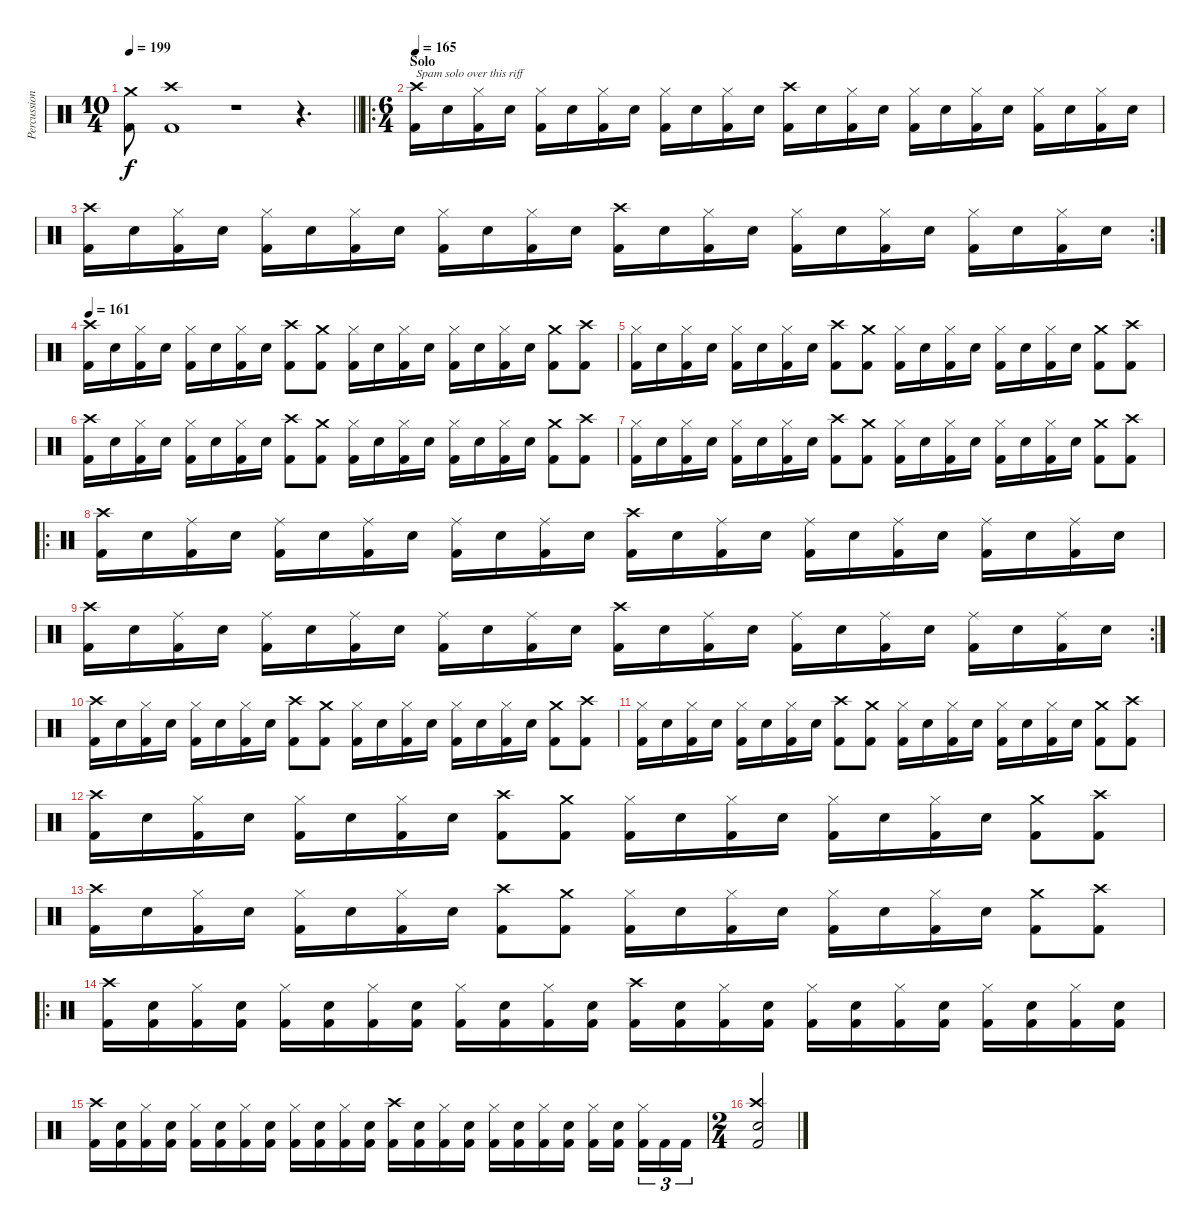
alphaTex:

\track ("Percussion" "Percussion") {instrument percussion}
\staff {score}
\articulation defaults
\ts (10 4)
\tempo 199
\clef neutral
\barLineRight lightlight
\ks c
("Crash medium (hit)" "Kick (hit) 2").8{dy f} ("Crash high (hit)" "Kick (hit) 2").1 r.1 r.4{d} |
\ro
\ts (6 4)
\section ("" "Solo")
\tempo 165
("Crash high (hit)" "Kick (hit) 2").16{txt "Spam solo over this riff"} "Snare (hit) 2".16 ("Hi-Hat (closed)" "Kick (hit) 2").16 "Snare (hit) 2".16 ("Hi-Hat (closed)" "Kick (hit) 2").16 "Snare (hit) 2".16 ("Hi-Hat (closed)" "Kick (hit) 2").16 "Snare (hit) 2".16 ("Hi-Hat (closed)" "Kick (hit) 2").16 "Snare (hit) 2".16 ("Hi-Hat (closed)" "Kick (hit) 2").16 "Snare (hit) 2".16 ("Crash high (hit)" "Kick (hit) 2").16 "Snare (hit) 2".16 ("Hi-Hat (closed)" "Kick (hit) 2").16 "Snare (hit) 2".16 ("Hi-Hat (closed)" "Kick (hit) 2").16 "Snare (hit) 2".16 ("Hi-Hat (closed)" "Kick (hit) 2").16 "Snare (hit) 2".16 ("Hi-Hat (closed)" "Kick (hit) 2").16 "Snare (hit) 2".16 ("Hi-Hat (closed)" "Kick (hit) 2").16 "Snare (hit) 2".16 |
\rc 2
("Crash high (hit)" "Kick (hit) 2").16 "Snare (hit) 2".16 ("Hi-Hat (closed)" "Kick (hit) 2").16 "Snare (hit) 2".16 ("Hi-Hat (closed)" "Kick (hit) 2").16 "Snare (hit) 2".16 ("Hi-Hat (closed)" "Kick (hit) 2").16 "Snare (hit) 2".16 ("Hi-Hat (closed)" "Kick (hit) 2").16 "Snare (hit) 2".16 ("Hi-Hat (closed)" "Kick (hit) 2").16 "Snare (hit) 2".16 ("Crash high (hit)" "Kick (hit) 2").16 "Snare (hit) 2".16 ("Hi-Hat (closed)" "Kick (hit) 2").16 "Snare (hit) 2".16 ("Hi-Hat (closed)" "Kick (hit) 2").16 "Snare (hit) 2".16 ("Hi-Hat (closed)" "Kick (hit) 2").16 "Snare (hit) 2".16 ("Hi-Hat (closed)" "Kick (hit) 2").16 "Snare (hit) 2".16 ("Hi-Hat (closed)" "Kick (hit) 2").16 "Snare (hit) 2".16 |
\tempo 161
("Crash high (hit)" "Kick (hit) 2").16 "Snare (hit) 2".16 ("Hi-Hat (closed)" "Kick (hit) 2").16 "Snare (hit) 2".16 ("Hi-Hat (closed)" "Kick (hit) 2").16 "Snare (hit) 2".16 ("Hi-Hat (closed)" "Kick (hit) 2").16 "Snare (hit) 2".16 ("Crash high (hit)" "Kick (hit) 2").8 ("Crash medium (hit)" "Kick (hit) 2").8 ("Hi-Hat (closed)" "Kick (hit) 2").16 "Snare (hit) 2".16 ("Hi-Hat (closed)" "Kick (hit) 2").16 "Snare (hit) 2".16 ("Hi-Hat (closed)" "Kick (hit) 2").16 "Snare (hit) 2".16 ("Hi-Hat (closed)" "Kick (hit) 2").16 "Snare (hit) 2".16 ("Crash medium (hit)" "Kick (hit) 2").8 ("Crash high (hit)" "Kick (hit) 2").8 |
("Hi-Hat (closed)" "Kick (hit) 2").16 "Snare (hit) 2".16 ("Hi-Hat (closed)" "Kick (hit) 2").16 "Snare (hit) 2".16 ("Hi-Hat (closed)" "Kick (hit) 2").16 "Snare (hit) 2".16 ("Hi-Hat (closed)" "Kick (hit) 2").16 "Snare (hit) 2".16 ("Crash high (hit)" "Kick (hit) 2").8 ("Crash medium (hit)" "Kick (hit) 2").8 ("Hi-Hat (closed)" "Kick (hit) 2").16 "Snare (hit) 2".16 ("Hi-Hat (closed)" "Kick (hit) 2").16 "Snare (hit) 2".16 ("Hi-Hat (closed)" "Kick (hit) 2").16 "Snare (hit) 2".16 ("Hi-Hat (closed)" "Kick (hit) 2").16 "Snare (hit) 2".16 ("Crash medium (hit)" "Kick (hit) 2").8 ("Crash high (hit)" "Kick (hit) 2").8 |
("Crash high (hit)" "Kick (hit) 2").16 "Snare (hit) 2".16 ("Hi-Hat (closed)" "Kick (hit) 2").16 "Snare (hit) 2".16 ("Hi-Hat (closed)" "Kick (hit) 2").16 "Snare (hit) 2".16 ("Hi-Hat (closed)" "Kick (hit) 2").16 "Snare (hit) 2".16 ("Crash high (hit)" "Kick (hit) 2").8 ("Crash medium (hit)" "Kick (hit) 2").8 ("Hi-Hat (closed)" "Kick (hit) 2").16 "Snare (hit) 2".16 ("Hi-Hat (closed)" "Kick (hit) 2").16 "Snare (hit) 2".16 ("Hi-Hat (closed)" "Kick (hit) 2").16 "Snare (hit) 2".16 ("Hi-Hat (closed)" "Kick (hit) 2").16 "Snare (hit) 2".16 ("Crash medium (hit)" "Kick (hit) 2").8 ("Crash high (hit)" "Kick (hit) 2").8 |
("Hi-Hat (closed)" "Kick (hit) 2").16 "Snare (hit) 2".16 ("Hi-Hat (closed)" "Kick (hit) 2").16 "Snare (hit) 2".16 ("Hi-Hat (closed)" "Kick (hit) 2").16 "Snare (hit) 2".16 ("Hi-Hat (closed)" "Kick (hit) 2").16 "Snare (hit) 2".16 ("Crash high (hit)" "Kick (hit) 2").8 ("Crash medium (hit)" "Kick (hit) 2").8 ("Hi-Hat (closed)" "Kick (hit) 2").16 "Snare (hit) 2".16 ("Hi-Hat (closed)" "Kick (hit) 2").16 "Snare (hit) 2".16 ("Hi-Hat (closed)" "Kick (hit) 2").16 "Snare (hit) 2".16 ("Hi-Hat (closed)" "Kick (hit) 2").16 "Snare (hit) 2".16 ("Crash medium (hit)" "Kick (hit) 2").8 ("Crash high (hit)" "Kick (hit) 2").8 |
\ro
("Crash high (hit)" "Kick (hit) 2").16 "Snare (hit) 2".16 ("Ride (middle)" "Kick (hit) 2").16 "Snare (hit) 2".16 ("Ride (middle)" "Kick (hit) 2").16 "Snare (hit) 2".16 ("Ride (middle)" "Kick (hit) 2").16 "Snare (hit) 2".16 ("Ride (middle)" "Kick (hit) 2").16 "Snare (hit) 2".16 ("Ride (middle)" "Kick (hit) 2").16 "Snare (hit) 2".16 ("Crash high (hit)" "Kick (hit) 2").16 "Snare (hit) 2".16 ("Ride (middle)" "Kick (hit) 2").16 "Snare (hit) 2".16 ("Ride (middle)" "Kick (hit) 2").16 "Snare (hit) 2".16 ("Ride (middle)" "Kick (hit) 2").16 "Snare (hit) 2".16 ("Ride (middle)" "Kick (hit) 2").16 "Snare (hit) 2".16 ("Ride (middle)" "Kick (hit) 2").16 "Snare (hit) 2".16 |
\rc 2
("Crash high (hit)" "Kick (hit) 2").16 "Snare (hit) 2".16 ("Ride (middle)" "Kick (hit) 2").16 "Snare (hit) 2".16 ("Ride (middle)" "Kick (hit) 2").16 "Snare (hit) 2".16 ("Ride (middle)" "Kick (hit) 2").16 "Snare (hit) 2".16 ("Ride (middle)" "Kick (hit) 2").16 "Snare (hit) 2".16 ("Ride (middle)" "Kick (hit) 2").16 "Snare (hit) 2".16 ("Crash high (hit)" "Kick (hit) 2").16 "Snare (hit) 2".16 ("Ride (middle)" "Kick (hit) 2").16 "Snare (hit) 2".16 ("Ride (middle)" "Kick (hit) 2").16 "Snare (hit) 2".16 ("Ride (middle)" "Kick (hit) 2").16 "Snare (hit) 2".16 ("Ride (middle)" "Kick (hit) 2").16 "Snare (hit) 2".16 ("Ride (middle)" "Kick (hit) 2").16 "Snare (hit) 2".16 |
("Crash high (hit)" "Kick (hit) 2").16 "Snare (hit) 2".16 ("Hi-Hat (closed)" "Kick (hit) 2").16 "Snare (hit) 2".16 ("Hi-Hat (closed)" "Kick (hit) 2").16 "Snare (hit) 2".16 ("Hi-Hat (closed)" "Kick (hit) 2").16 "Snare (hit) 2".16 ("Crash high (hit)" "Kick (hit) 2").8 ("Crash medium (hit)" "Kick (hit) 2").8 ("Hi-Hat (closed)" "Kick (hit) 2").16 "Snare (hit) 2".16 ("Hi-Hat (closed)" "Kick (hit) 2").16 "Snare (hit) 2".16 ("Hi-Hat (closed)" "Kick (hit) 2").16 "Snare (hit) 2".16 ("Hi-Hat (closed)" "Kick (hit) 2").16 "Snare (hit) 2".16 ("Crash medium (hit)" "Kick (hit) 2").8 ("Crash high (hit)" "Kick (hit) 2").8 |
("Hi-Hat (closed)" "Kick (hit) 2").16 "Snare (hit) 2".16 ("Hi-Hat (closed)" "Kick (hit) 2").16 "Snare (hit) 2".16 ("Hi-Hat (closed)" "Kick (hit) 2").16 "Snare (hit) 2".16 ("Hi-Hat (closed)" "Kick (hit) 2").16 "Snare (hit) 2".16 ("Crash high (hit)" "Kick (hit) 2").8 ("Crash medium (hit)" "Kick (hit) 2").8 ("Hi-Hat (closed)" "Kick (hit) 2").16 "Snare (hit) 2".16 ("Hi-Hat (closed)" "Kick (hit) 2").16 "Snare (hit) 2".16 ("Hi-Hat (closed)" "Kick (hit) 2").16 "Snare (hit) 2".16 ("Hi-Hat (closed)" "Kick (hit) 2").16 "Snare (hit) 2".16 ("Crash medium (hit)" "Kick (hit) 2").8 ("Crash high (hit)" "Kick (hit) 2").8 |
("Crash high (hit)" "Kick (hit) 2").16 "Snare (hit) 2".16 ("Hi-Hat (closed)" "Kick (hit) 2").16 "Snare (hit) 2".16 ("Hi-Hat (closed)" "Kick (hit) 2").16 "Snare (hit) 2".16 ("Hi-Hat (closed)" "Kick (hit) 2").16 "Snare (hit) 2".16 ("Crash high (hit)" "Kick (hit) 2").8 ("Crash medium (hit)" "Kick (hit) 2").8 ("Hi-Hat (closed)" "Kick (hit) 2").16 "Snare (hit) 2".16 ("Hi-Hat (closed)" "Kick (hit) 2").16 "Snare (hit) 2".16 ("Hi-Hat (closed)" "Kick (hit) 2").16 "Snare (hit) 2".16 ("Hi-Hat (closed)" "Kick (hit) 2").16 "Snare (hit) 2".16 ("Crash medium (hit)" "Kick (hit) 2").8 ("Crash high (hit)" "Kick (hit) 2").8 |
("Crash high (hit)" "Kick (hit) 2").16 "Snare (hit) 2".16 ("Hi-Hat (closed)" "Kick (hit) 2").16 "Snare (hit) 2".16 ("Hi-Hat (closed)" "Kick (hit) 2").16 "Snare (hit) 2".16 ("Hi-Hat (closed)" "Kick (hit) 2").16 "Snare (hit) 2".16 ("Crash high (hit)" "Kick (hit) 2").8 ("Crash medium (hit)" "Kick (hit) 2").8 ("Hi-Hat (closed)" "Kick (hit) 2").16 "Snare (hit) 2".16 ("Hi-Hat (closed)" "Kick (hit) 2").16 "Snare (hit) 2".16 ("Hi-Hat (closed)" "Kick (hit) 2").16 "Snare (hit) 2".16 ("Hi-Hat (closed)" "Kick (hit) 2").16 "Snare (hit) 2".16 ("Crash medium (hit)" "Kick (hit) 2").8 ("Crash high (hit)" "Kick (hit) 2").8 |
\ro
("Crash high (hit)" "Kick (hit) 2").16 ("Snare (hit) 2" "Kick (hit) 2").16 ("Hi-Hat (closed)" "Kick (hit) 2").16 ("Snare (hit) 2" "Kick (hit) 2").16 ("Hi-Hat (closed)" "Kick (hit) 2").16 ("Snare (hit) 2" "Kick (hit) 2").16 ("Hi-Hat (closed)" "Kick (hit) 2").16 ("Snare (hit) 2" "Kick (hit) 2").16 ("Hi-Hat (closed)" "Kick (hit) 2").16 ("Snare (hit) 2" "Kick (hit) 2").16 ("Hi-Hat (closed)" "Kick (hit) 2").16 ("Snare (hit) 2" "Kick (hit) 2").16 ("Crash high (hit)" "Kick (hit) 2").16 ("Snare (hit) 2" "Kick (hit) 2").16 ("Hi-Hat (closed)" "Kick (hit) 2").16 ("Snare (hit) 2" "Kick (hit) 2").16 ("Hi-Hat (closed)" "Kick (hit) 2").16 ("Snare (hit) 2" "Kick (hit) 2").16 ("Hi-Hat (closed)" "Kick (hit) 2").16 ("Snare (hit) 2" "Kick (hit) 2").16 ("Hi-Hat (closed)" "Kick (hit) 2").16 ("Snare (hit) 2" "Kick (hit) 2").16 ("Hi-Hat (closed)" "Kick (hit) 2").16 ("Snare (hit) 2" "Kick (hit) 2").16 |
("Crash high (hit)" "Kick (hit) 2").16 ("Snare (hit) 2" "Kick (hit) 2").16 ("Hi-Hat (closed)" "Kick (hit) 2").16 ("Snare (hit) 2" "Kick (hit) 2").16 ("Hi-Hat (closed)" "Kick (hit) 2").16 ("Snare (hit) 2" "Kick (hit) 2").16 ("Hi-Hat (closed)" "Kick (hit) 2").16 ("Snare (hit) 2" "Kick (hit) 2").16 ("Hi-Hat (closed)" "Kick (hit) 2").16 ("Snare (hit) 2" "Kick (hit) 2").16 ("Hi-Hat (closed)" "Kick (hit) 2").16 ("Snare (hit) 2" "Kick (hit) 2").16 ("Crash high (hit)" "Kick (hit) 2").16 ("Snare (hit) 2" "Kick (hit) 2").16 ("Hi-Hat (closed)" "Kick (hit) 2").16 ("Snare (hit) 2" "Kick (hit) 2").16 ("Hi-Hat (closed)" "Kick (hit) 2").16 ("Snare (hit) 2" "Kick (hit) 2").16 ("Hi-Hat (closed)" "Kick (hit) 2").16 ("Snare (hit) 2" "Kick (hit) 2").16 ("Hi-Hat (closed)" "Kick (hit) 2").16 ("Snare (hit) 2" "Kick (hit) 2").16 ("Hi-Hat (closed)" "Kick (hit) 2").16{tu (3 2)} "Kick (hit) 2".16{tu (3 2)} "Kick (hit) 2".16{tu (3 2)} |
\ts (2 4)
("Crash high (hit)" "Snare (hit) 2" "Kick (hit) 2").2
